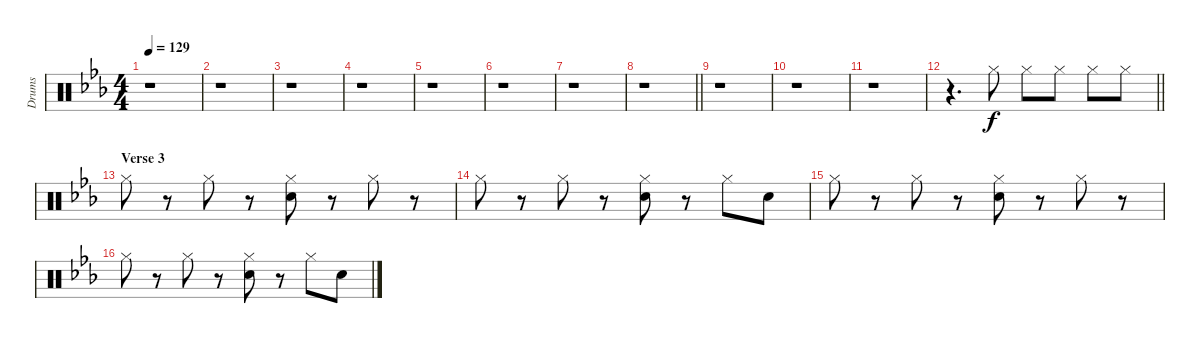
\track ("Drums" "Drums") {instrument percussion}
\staff {score}
\articulation defaults
\ts (4 4)
\tempo 129
\clef neutral
\ks eb
r.1{dy f} |
r.1 |
r.1 |
r.1 |
r.1 |
r.1 |
r.1 |
\barLineRight lightlight
r.1 |
r.1 |
r.1 |
r.1 |
\barLineRight lightlight
r.4{d} "Hi-Hat (closed)".8 "Hi-Hat (closed)".8 "Hi-Hat (closed)".8 "Hi-Hat (closed)".8 "Hi-Hat (closed)".8 |
\section ("" "Verse 3")
"Hi-Hat (closed)".8 r.8 "Hi-Hat (closed)".8 r.8 ("Hi-Hat (closed)" "Snare (hit) 2").8 r.8 "Hi-Hat (closed)".8 r.8 |
"Hi-Hat (closed)".8 r.8 "Hi-Hat (closed)".8 r.8 ("Hi-Hat (closed)" "Snare (hit) 2").8 r.8 "Hi-Hat (closed)".8 "Snare (hit) 2".8 |
"Hi-Hat (closed)".8 r.8 "Hi-Hat (closed)".8 r.8 ("Hi-Hat (closed)" "Snare (hit) 2").8 r.8 "Hi-Hat (closed)".8 r.8 |
"Hi-Hat (closed)".8 r.8 "Hi-Hat (closed)".8 r.8 ("Hi-Hat (closed)" "Snare (hit) 2").8 r.8 "Hi-Hat (closed)".8 "Snare (hit) 2".8
